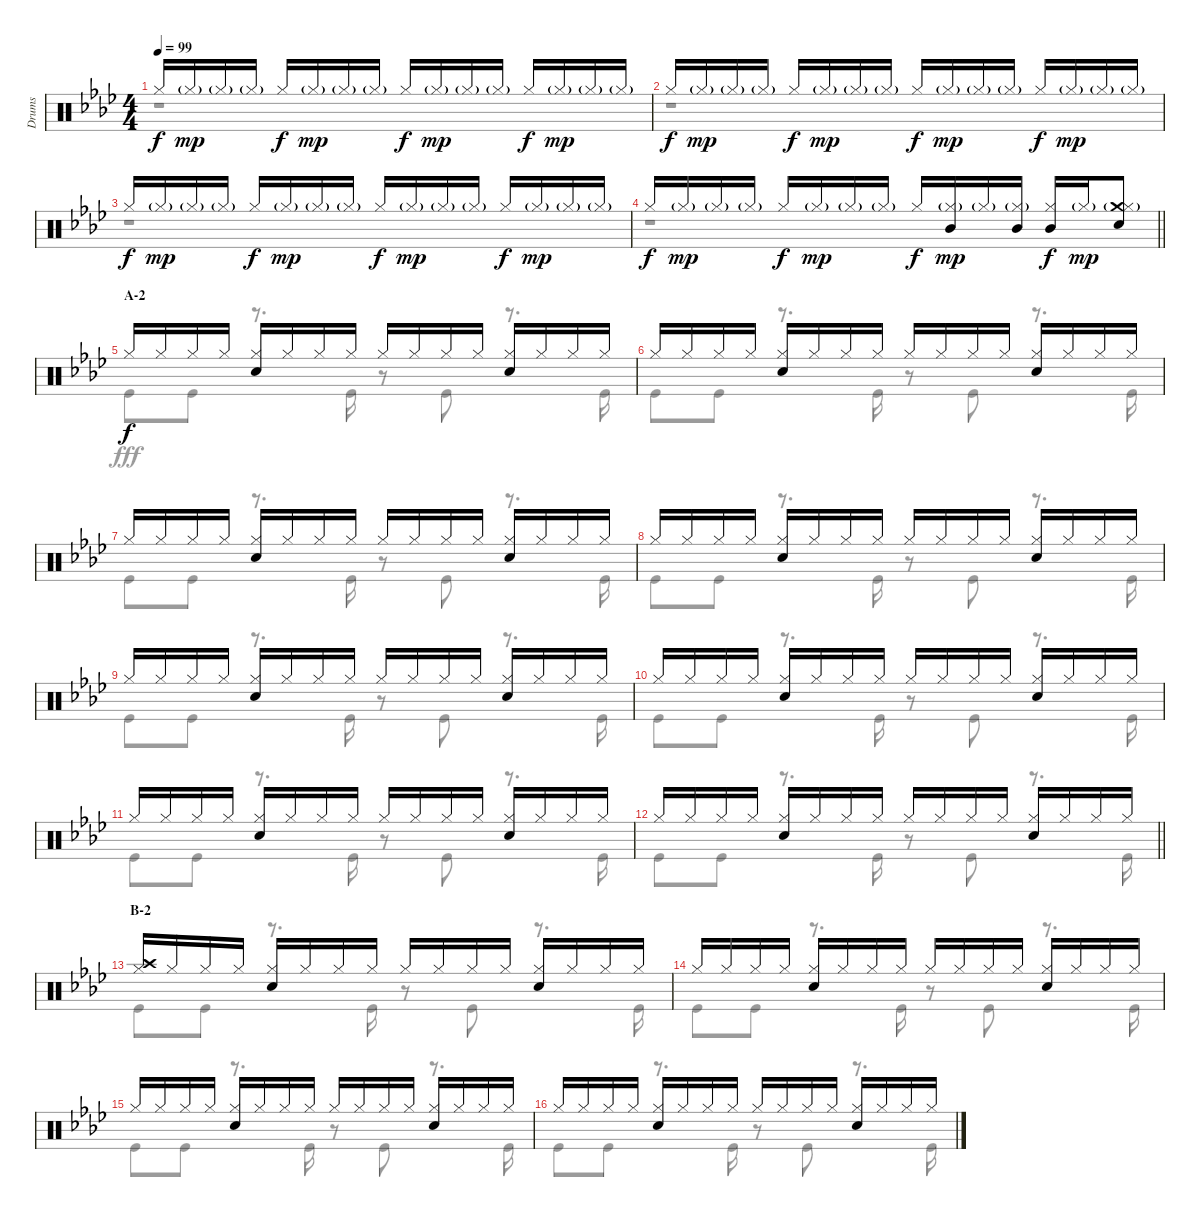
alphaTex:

\track ("Drums" "Drums") {instrument percussion}
\staff {score}
\articulation defaults
\voice
\ts (4 4)
\tempo 99
\clef neutral
\ks ab "Hi-Hat (closed)".16{dy f} "Hi-Hat (closed)"{g}.16{dy mp} "Hi-Hat (closed)"{g}.16 "Hi-Hat (closed)"{g}.16 "Hi-Hat (closed)".16{dy f} "Hi-Hat (closed)"{g}.16{dy mp} "Hi-Hat (closed)"{g}.16 "Hi-Hat (closed)"{g}.16 "Hi-Hat (closed)".16{dy f} "Hi-Hat (closed)"{g}.16{dy mp} "Hi-Hat (closed)"{g}.16 "Hi-Hat (closed)"{g}.16 "Hi-Hat (closed)".16{dy f} "Hi-Hat (closed)"{g}.16{dy mp} "Hi-Hat (closed)"{g}.16 "Hi-Hat (closed)"{g}.16
|
"Hi-Hat (closed)".16{dy f} "Hi-Hat (closed)"{g}.16{dy mp} "Hi-Hat (closed)"{g}.16 "Hi-Hat (closed)"{g}.16 "Hi-Hat (closed)".16{dy f} "Hi-Hat (closed)"{g}.16{dy mp} "Hi-Hat (closed)"{g}.16 "Hi-Hat (closed)"{g}.16 "Hi-Hat (closed)".16{dy f} "Hi-Hat (closed)"{g}.16{dy mp} "Hi-Hat (closed)"{g}.16 "Hi-Hat (closed)"{g}.16 "Hi-Hat (closed)".16{dy f} "Hi-Hat (closed)"{g}.16{dy mp} "Hi-Hat (closed)"{g}.16 "Hi-Hat (closed)"{g}.16 |
"Hi-Hat (closed)".16{dy f} "Hi-Hat (closed)"{g}.16{dy mp} "Hi-Hat (closed)"{g}.16 "Hi-Hat (closed)"{g}.16 "Hi-Hat (closed)".16{dy f} "Hi-Hat (closed)"{g}.16{dy mp} "Hi-Hat (closed)"{g}.16 "Hi-Hat (closed)"{g}.16 "Hi-Hat (closed)".16{dy f} "Hi-Hat (closed)"{g}.16{dy mp} "Hi-Hat (closed)"{g}.16 "Hi-Hat (closed)"{g}.16 "Hi-Hat (closed)".16{dy f} "Hi-Hat (closed)"{g}.16{dy mp} "Hi-Hat (closed)"{g}.16 "Hi-Hat (closed)"{g}.16 |
\barLineRight lightlight "Hi-Hat (closed)".16{dy f} "Hi-Hat (closed)"{g}.16{dy mp} "Hi-Hat (closed)"{g}.16 "Hi-Hat (closed)"{g}.16 "Hi-Hat (closed)".16{dy f} "Hi-Hat (closed)"{g}.16{dy mp} "Hi-Hat (closed)"{g}.16 "Hi-Hat (closed)"{g}.16 "Hi-Hat (closed)".16{dy f}
("Hi-Hat (closed)"{g} "Mid Tom (hit)").16{dy mp} "Hi-Hat (closed)"{g}.16 ("Hi-Hat (closed)"{g} "Mid Tom (hit)").16 ("Hi-Hat (closed)" "Mid Tom (hit)").16{dy f} "Hi-Hat (closed)"{g}.16{dy mp} ("Crash medium (hit)" "Hi-Hat (closed)"{g} "Snare (hit) 2").8 |
\section ("" "A-2")
"Hi-Hat (closed)".16{dy f} "Hi-Hat (closed)".16 "Hi-Hat (closed)".16 "Hi-Hat (closed)".16 ("Hi-Hat (closed)" "Snare (hit) 2").16 "Hi-Hat (closed)".16 "Hi-Hat (closed)".16 "Hi-Hat (closed)".16 "Hi-Hat (closed)".16 "Hi-Hat (closed)".16 "Hi-Hat (closed)".16 "Hi-Hat (closed)".16 ("Hi-Hat (closed)" "Snare (hit) 2").16 "Hi-Hat (closed)".16 "Hi-Hat (closed)".16 "Hi-Hat (closed)".16 |
"Hi-Hat (closed)".16 "Hi-Hat (closed)".16 "Hi-Hat (closed)".16 "Hi-Hat (closed)".16 ("Hi-Hat (closed)" "Snare (hit) 2").16 "Hi-Hat (closed)".16 "Hi-Hat (closed)".16 "Hi-Hat (closed)".16 "Hi-Hat (closed)".16 "Hi-Hat (closed)".16 "Hi-Hat (closed)".16 "Hi-Hat (closed)".16 ("Hi-Hat (closed)" "Snare (hit) 2").16 "Hi-Hat (closed)".16 "Hi-Hat (closed)".16 "Hi-Hat (closed)".16 |
"Hi-Hat (closed)".16 "Hi-Hat (closed)".16 "Hi-Hat (closed)".16 "Hi-Hat (closed)".16 ("Hi-Hat (closed)" "Snare (hit) 2").16 "Hi-Hat (closed)".16 "Hi-Hat (closed)".16 "Hi-Hat (closed)".16 "Hi-Hat (closed)".16 "Hi-Hat (closed)".16 "Hi-Hat (closed)".16 "Hi-Hat (closed)".16 ("Hi-Hat (closed)" "Snare (hit) 2").16 "Hi-Hat (closed)".16 "Hi-Hat (closed)".16 "Hi-Hat (closed)".16 |
"Hi-Hat (closed)".16 "Hi-Hat (closed)".16 "Hi-Hat (closed)".16 "Hi-Hat (closed)".16 ("Hi-Hat (closed)" "Snare (hit) 2").16 "Hi-Hat (closed)".16 "Hi-Hat (closed)".16 "Hi-Hat (closed)".16 "Hi-Hat (closed)".16 "Hi-Hat (closed)".16 "Hi-Hat (closed)".16 "Hi-Hat (closed)".16 ("Hi-Hat (closed)" "Snare (hit) 2").16 "Hi-Hat (closed)".16 "Hi-Hat (closed)".16 "Hi-Hat (closed)".16 |
"Hi-Hat (closed)".16 "Hi-Hat (closed)".16 "Hi-Hat (closed)".16 "Hi-Hat (closed)".16 ("Hi-Hat (closed)" "Snare (hit) 2").16 "Hi-Hat (closed)".16 "Hi-Hat (closed)".16 "Hi-Hat (closed)".16 "Hi-Hat (closed)".16 "Hi-Hat (closed)".16 "Hi-Hat (closed)".16 "Hi-Hat (closed)".16 ("Hi-Hat (closed)" "Snare (hit) 2").16 "Hi-Hat (closed)".16 "Hi-Hat (closed)".16 "Hi-Hat (closed)".16 |
"Hi-Hat (closed)".16 "Hi-Hat (closed)".16 "Hi-Hat (closed)".16 "Hi-Hat (closed)".16 ("Hi-Hat (closed)" "Snare (hit) 2").16 "Hi-Hat (closed)".16 "Hi-Hat (closed)".16 "Hi-Hat (closed)".16 "Hi-Hat (closed)".16 "Hi-Hat (closed)".16 "Hi-Hat (closed)".16 "Hi-Hat (closed)".16 ("Hi-Hat (closed)" "Snare (hit) 2").16 "Hi-Hat (closed)".16 "Hi-Hat (closed)".16 "Hi-Hat (closed)".16 |
"Hi-Hat (closed)".16 "Hi-Hat (closed)".16 "Hi-Hat (closed)".16 "Hi-Hat (closed)".16 ("Hi-Hat (closed)" "Snare (hit) 2").16 "Hi-Hat (closed)".16 "Hi-Hat (closed)".16 "Hi-Hat (closed)".16 "Hi-Hat (closed)".16 "Hi-Hat (closed)".16 "Hi-Hat (closed)".16 "Hi-Hat (closed)".16 ("Hi-Hat (closed)" "Snare (hit) 2").16 "Hi-Hat (closed)".16 "Hi-Hat (closed)".16 "Hi-Hat (closed)".16 |
\barLineRight lightlight "Hi-Hat (closed)".16 "Hi-Hat (closed)".16 "Hi-Hat (closed)".16 "Hi-Hat (closed)".16
("Hi-Hat (closed)" "Snare (hit) 2").16 "Hi-Hat (closed)".16 "Hi-Hat (closed)".16 "Hi-Hat (closed)".16 "Hi-Hat (closed)".16 "Hi-Hat (closed)".16 "Hi-Hat (closed)".16 "Hi-Hat (closed)".16 ("Hi-Hat (closed)" "Snare (hit) 2").16 "Hi-Hat (closed)".16 "Hi-Hat (closed)".16 "Hi-Hat (closed)".16 |
\section ("" "B-2")
("Crash high (hit)" "Hi-Hat (closed)").16 "Hi-Hat (closed)".16 "Hi-Hat (closed)".16 "Hi-Hat (closed)".16 ("Hi-Hat (closed)" "Snare (hit) 2").16 "Hi-Hat (closed)".16 "Hi-Hat (closed)".16 "Hi-Hat (closed)".16 "Hi-Hat (closed)".16 "Hi-Hat (closed)".16 "Hi-Hat (closed)".16 "Hi-Hat (closed)".16 ("Hi-Hat (closed)" "Snare (hit) 2").16 "Hi-Hat (closed)".16 "Hi-Hat (closed)".16 "Hi-Hat (closed)".16 |
"Hi-Hat (closed)".16 "Hi-Hat (closed)".16 "Hi-Hat (closed)".16 "Hi-Hat (closed)".16 ("Hi-Hat (closed)" "Snare (hit) 2").16 "Hi-Hat (closed)".16 "Hi-Hat (closed)".16 "Hi-Hat (closed)".16 "Hi-Hat (closed)".16 "Hi-Hat (closed)".16 "Hi-Hat (closed)".16 "Hi-Hat (closed)".16 ("Hi-Hat (closed)" "Snare (hit) 2").16 "Hi-Hat (closed)".16 "Hi-Hat (closed)".16 "Hi-Hat (closed)".16 |
"Hi-Hat (closed)".16 "Hi-Hat (closed)".16 "Hi-Hat (closed)".16 "Hi-Hat (closed)".16 ("Hi-Hat (closed)" "Snare (hit) 2").16 "Hi-Hat (closed)".16 "Hi-Hat (closed)".16 "Hi-Hat (closed)".16 "Hi-Hat (closed)".16 "Hi-Hat (closed)".16 "Hi-Hat (closed)".16 "Hi-Hat (closed)".16 ("Hi-Hat (closed)" "Snare (hit) 2").16 "Hi-Hat (closed)".16 "Hi-Hat (closed)".16 "Hi-Hat (closed)".16 |
"Hi-Hat (closed)".16 "Hi-Hat (closed)".16 "Hi-Hat (closed)".16 "Hi-Hat (closed)".16 ("Hi-Hat (closed)" "Snare (hit) 2").16 "Hi-Hat (closed)".16 "Hi-Hat (closed)".16 "Hi-Hat (closed)".16 "Hi-Hat (closed)".16 "Hi-Hat (closed)".16 "Hi-Hat (closed)".16 "Hi-Hat (closed)".16 ("Hi-Hat (closed)" "Snare (hit) 2").16 "Hi-Hat (closed)".16 "Hi-Hat (closed)".16 "Hi-Hat (closed)".16
\voice
\clef neutral
\ottava regular
\simile none
\ks ab
r.1{dy fff} |
r.1 |
r.1 |
\barLineRight lightlight
r.1 |
"Kick (hit)".8 "Kick (hit)".8 r.8{d} "Kick (hit)".16 r.8 "Kick (hit)".8 r.8{d} "Kick (hit)".16 |
"Kick (hit)".8 "Kick (hit)".8 r.8{d} "Kick (hit)".16 r.8 "Kick (hit)".8 r.8{d} "Kick (hit)".16 |
"Kick (hit)".8 "Kick (hit)".8 r.8{d} "Kick (hit)".16 r.8 "Kick (hit)".8 r.8{d} "Kick (hit)".16 |
"Kick (hit)".8 "Kick (hit)".8 r.8{d} "Kick (hit)".16 r.8 "Kick (hit)".8 r.8{d} "Kick (hit)".16 |
"Kick (hit)".8 "Kick (hit)".8 r.8{d} "Kick (hit)".16 r.8 "Kick (hit)".8 r.8{d} "Kick (hit)".16 |
"Kick (hit)".8 "Kick (hit)".8 r.8{d} "Kick (hit)".16 r.8 "Kick (hit)".8 r.8{d} "Kick (hit)".16 |
"Kick (hit)".8 "Kick (hit)".8 r.8{d} "Kick (hit)".16 r.8 "Kick (hit)".8 r.8{d} "Kick (hit)".16 |
\barLineRight lightlight "Kick (hit)".8 "Kick (hit)".8
r.8{d} "Kick (hit)".16 r.8 "Kick (hit)".8 r.8{d} "Kick (hit)".16 |
"Kick (hit)".8 "Kick (hit)".8 r.8{d} "Kick (hit)".16 r.8 "Kick (hit)".8 r.8{d} "Kick (hit)".16 |
"Kick (hit)".8 "Kick (hit)".8 r.8{d} "Kick (hit)".16 r.8 "Kick (hit)".8 r.8{d} "Kick (hit)".16 |
"Kick (hit)".8 "Kick (hit)".8 r.8{d} "Kick (hit)".16 r.8 "Kick (hit)".8 r.8{d} "Kick (hit)".16 |
"Kick (hit)".8 "Kick (hit)".8 r.8{d} "Kick (hit)".16 r.8 "Kick (hit)".8 r.8{d} "Kick (hit)".16
